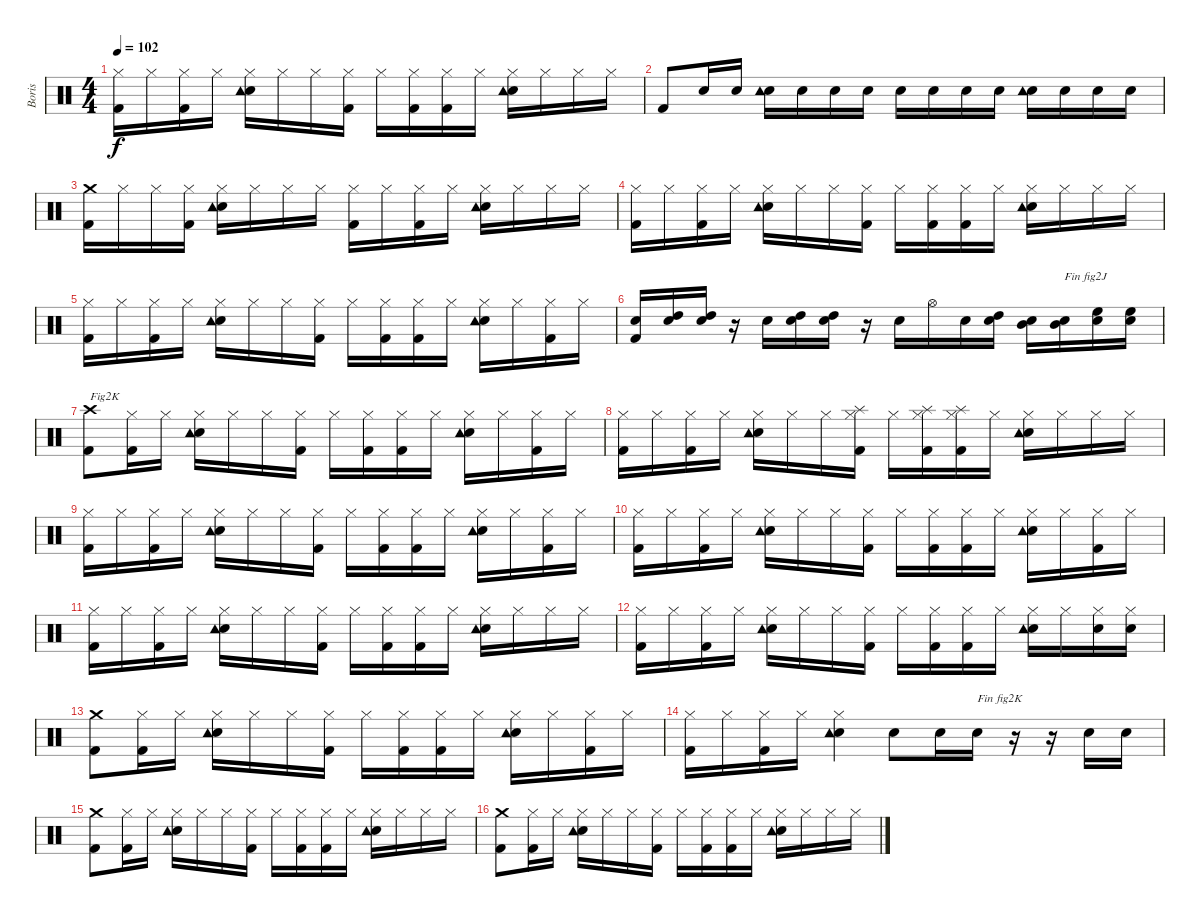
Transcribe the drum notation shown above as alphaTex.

\track ("Boris" "Boris") {instrument percussion}
\staff {score}
\articulation defaults
\ts (4 4)
\tempo 102
\clef neutral
\ks c
("Kick (hit) 2" "Hi-Hat (closed)").16{dy f} "Hi-Hat (closed)".16 ("Kick (hit) 2" "Hi-Hat (closed)").16 "Hi-Hat (closed)".16 ("Electric Snare (hit)" "Tambourine (hit)" "Hi-Hat (closed)").16 "Hi-Hat (closed)".16 "Hi-Hat (closed)".16 ("Kick (hit) 2" "Hi-Hat (closed)").16 "Hi-Hat (closed)".16 ("Kick (hit) 2" "Hi-Hat (closed)").16 ("Kick (hit) 2" "Hi-Hat (closed)").16 "Hi-Hat (closed)".16 ("Electric Snare (hit)" "Tambourine (hit)" "Hi-Hat (closed)").16 "Hi-Hat (closed)".16 "Hi-Hat (closed)".16 "Hi-Hat (closed)".16 |
"Kick (hit) 2".8 "Electric Snare (hit)".16 "Electric Snare (hit)".16 ("Electric Snare (hit)" "Tambourine (hit)").16 "Electric Snare (hit)".16 "Electric Snare (hit)".16 "Electric Snare (hit)".16 "Electric Snare (hit)".16 "Electric Snare (hit)".16 "Electric Snare (hit)".16 "Electric Snare (hit)".16 ("Electric Snare (hit)" "Tambourine (hit)").16 "Electric Snare (hit)".16 "Electric Snare (hit)".16 "Electric Snare (hit)".16 |
("Kick (hit) 2" "Crash medium (hit)").16 "Hi-Hat (closed)".16 "Hi-Hat (closed)".16 ("Kick (hit) 2" "Hi-Hat (closed)").16 ("Electric Snare (hit)" "Tambourine (hit)" "Hi-Hat (closed)").16 "Hi-Hat (closed)".16 "Hi-Hat (closed)".16 "Hi-Hat (closed)".16 ("Kick (hit) 2" "Hi-Hat (closed)").16 "Hi-Hat (closed)".16 ("Kick (hit) 2" "Hi-Hat (closed)").16 "Hi-Hat (closed)".16 ("Electric Snare (hit)" "Tambourine (hit)" "Hi-Hat (closed)").16 "Hi-Hat (closed)".16 "Hi-Hat (closed)".16 "Hi-Hat (closed)".16 |
("Kick (hit) 2" "Hi-Hat (closed)").16 "Hi-Hat (closed)".16 ("Kick (hit) 2" "Hi-Hat (closed)").16 "Hi-Hat (closed)".16 ("Electric Snare (hit)" "Tambourine (hit)" "Hi-Hat (closed)").16 "Hi-Hat (closed)".16 "Hi-Hat (closed)".16 ("Kick (hit) 2" "Hi-Hat (closed)").16 "Hi-Hat (closed)".16 ("Kick (hit) 2" "Hi-Hat (closed)").16 ("Kick (hit) 2" "Hi-Hat (closed)").16 "Hi-Hat (closed)".16 ("Electric Snare (hit)" "Tambourine (hit)" "Hi-Hat (closed)").16 "Hi-Hat (closed)".16 "Hi-Hat (closed)".16 "Hi-Hat (closed)".16 |
("Kick (hit) 2" "Hi-Hat (closed)").16 "Hi-Hat (closed)".16 ("Kick (hit) 2" "Hi-Hat (closed)").16 "Hi-Hat (closed)".16 ("Electric Snare (hit)" "Tambourine (hit)" "Hi-Hat (closed)").16 "Hi-Hat (closed)".16 "Hi-Hat (closed)".16 ("Kick (hit) 2" "Hi-Hat (closed)").16 "Hi-Hat (closed)".16 ("Kick (hit) 2" "Hi-Hat (closed)").16 ("Kick (hit) 2" "Hi-Hat (closed)").16 "Hi-Hat (closed)".16 ("Electric Snare (hit)" "Tambourine (hit)" "Hi-Hat (closed)").16 "Hi-Hat (closed)".16 ("Kick (hit) 2" "Hi-Hat (closed)").16 "Hi-Hat (closed)".16 |
("Kick (hit) 2" "Electric Snare (hit)").16 ("Electric Snare (hit)" "High Tom (hit)").16 ("Electric Snare (hit)" "High Tom (hit)").16 r.16 "Electric Snare (hit)".16 ("Electric Snare (hit)" "High Tom (hit)").16 ("Electric Snare (hit)" "High Tom (hit)").16 r.16 "Electric Snare (hit)".16 "Hi-Hat (open)".16 "Electric Snare (hit)".16 ("Electric Snare (hit)" "High Tom (hit)").16 ("Electric Snare (hit)" "Mid Tom (hit)").16 ("Electric Snare (hit)" "Mid Tom (hit)").16{txt "Fin fig2J"} ("Electric Snare (hit)" "High Floor Tom (hit)").16 ("Electric Snare (hit)" "High Floor Tom (hit)").16 |
("Kick (hit) 2" "Crash high (hit)").8{txt "Fig2K"} ("Kick (hit) 2" "Hi-Hat (closed)").16 "Hi-Hat (closed)".16 ("Electric Snare (hit)" "Tambourine (hit)" "Hi-Hat (closed)").16 "Hi-Hat (closed)".16 "Hi-Hat (closed)".16 ("Kick (hit) 2" "Hi-Hat (closed)").16 "Hi-Hat (closed)".16 ("Kick (hit) 2" "Hi-Hat (closed)").16 ("Kick (hit) 2" "Hi-Hat (closed)").16 "Hi-Hat (closed)".16 ("Electric Snare (hit)" "Tambourine (hit)" "Hi-Hat (closed)").16 "Hi-Hat (closed)".16 ("Kick (hit) 2" "Hi-Hat (closed)").16 "Hi-Hat (closed)".16 |
("Kick (hit) 2" "Hi-Hat (closed)").16 "Hi-Hat (closed)".16 ("Kick (hit) 2" "Hi-Hat (closed)").16 "Hi-Hat (closed)".16 ("Electric Snare (hit)" "Tambourine (hit)" "Hi-Hat (closed)").16 "Hi-Hat (closed)".16 "Hi-Hat (closed)".16 ("Kick (hit) 2" "Hi-Hat (closed)" "Splash (hit)").16 "Hi-Hat (closed)".16 ("Kick (hit) 2" "Hi-Hat (closed)" "Splash (hit)").16 ("Kick (hit) 2" "Hi-Hat (closed)" "Splash (hit)").16 "Hi-Hat (closed)".16 ("Electric Snare (hit)" "Tambourine (hit)" "Hi-Hat (closed)").16 "Hi-Hat (closed)".16 "Hi-Hat (closed)".16 "Hi-Hat (closed)".16 |
("Kick (hit) 2" "Hi-Hat (closed)").16 "Hi-Hat (closed)".16 ("Kick (hit) 2" "Hi-Hat (closed)").16 "Hi-Hat (closed)".16 ("Electric Snare (hit)" "Tambourine (hit)" "Hi-Hat (closed)").16 "Hi-Hat (closed)".16 "Hi-Hat (closed)".16 ("Kick (hit) 2" "Hi-Hat (closed)").16 "Hi-Hat (closed)".16 ("Kick (hit) 2" "Hi-Hat (closed)").16 ("Kick (hit) 2" "Hi-Hat (closed)").16 "Hi-Hat (closed)".16 ("Electric Snare (hit)" "Tambourine (hit)" "Hi-Hat (closed)").16 "Hi-Hat (closed)".16 ("Kick (hit) 2" "Hi-Hat (closed)").16 "Hi-Hat (closed)".16 |
("Kick (hit) 2" "Hi-Hat (closed)").16 "Hi-Hat (closed)".16 ("Kick (hit) 2" "Hi-Hat (closed)").16 "Hi-Hat (closed)".16 ("Electric Snare (hit)" "Tambourine (hit)" "Hi-Hat (closed)").16 "Hi-Hat (closed)".16 "Hi-Hat (closed)".16 ("Kick (hit) 2" "Hi-Hat (closed)").16 "Hi-Hat (closed)".16 ("Kick (hit) 2" "Hi-Hat (closed)").16 ("Kick (hit) 2" "Hi-Hat (closed)").16 "Hi-Hat (closed)".16 ("Electric Snare (hit)" "Tambourine (hit)" "Hi-Hat (closed)").16 "Hi-Hat (closed)".16 ("Kick (hit) 2" "Hi-Hat (closed)").16 "Hi-Hat (closed)".16 |
("Kick (hit) 2" "Hi-Hat (closed)").16 "Hi-Hat (closed)".16 ("Kick (hit) 2" "Hi-Hat (closed)").16 "Hi-Hat (closed)".16 ("Electric Snare (hit)" "Tambourine (hit)" "Hi-Hat (closed)").16 "Hi-Hat (closed)".16 "Hi-Hat (closed)".16 ("Kick (hit) 2" "Hi-Hat (closed)").16 "Hi-Hat (closed)".16 ("Kick (hit) 2" "Hi-Hat (closed)").16 ("Kick (hit) 2" "Hi-Hat (closed)").16 "Hi-Hat (closed)".16 ("Electric Snare (hit)" "Tambourine (hit)" "Hi-Hat (closed)").16 "Hi-Hat (closed)".16 "Hi-Hat (closed)".16 "Hi-Hat (closed)".16 |
("Kick (hit) 2" "Hi-Hat (closed)").16 "Hi-Hat (closed)".16 ("Kick (hit) 2" "Hi-Hat (closed)").16 "Hi-Hat (closed)".16 ("Electric Snare (hit)" "Tambourine (hit)" "Hi-Hat (closed)").16 "Hi-Hat (closed)".16 "Hi-Hat (closed)".16 ("Kick (hit) 2" "Hi-Hat (closed)").16 "Hi-Hat (closed)".16 ("Kick (hit) 2" "Hi-Hat (closed)").16 ("Kick (hit) 2" "Hi-Hat (closed)").16 "Hi-Hat (closed)".16 ("Electric Snare (hit)" "Tambourine (hit)" "Hi-Hat (closed)").16 "Hi-Hat (closed)".16 ("Electric Snare (hit)" "Hi-Hat (closed)").16 ("Electric Snare (hit)" "Hi-Hat (closed)").16 |
("Kick (hit) 2" "Crash medium (hit)").8 ("Kick (hit) 2" "Hi-Hat (closed)").16 "Hi-Hat (closed)".16 ("Electric Snare (hit)" "Tambourine (hit)" "Hi-Hat (closed)").16 "Hi-Hat (closed)".16 "Hi-Hat (closed)".16 ("Kick (hit) 2" "Hi-Hat (closed)").16 "Hi-Hat (closed)".16 ("Kick (hit) 2" "Hi-Hat (closed)").16 ("Kick (hit) 2" "Hi-Hat (closed)").16 "Hi-Hat (closed)".16 ("Electric Snare (hit)" "Tambourine (hit)" "Hi-Hat (closed)").16 "Hi-Hat (closed)".16 ("Kick (hit) 2" "Hi-Hat (closed)").16 "Hi-Hat (closed)".16 |
("Kick (hit) 2" "Hi-Hat (closed)").16 "Hi-Hat (closed)".16 ("Kick (hit) 2" "Hi-Hat (closed)").16 "Hi-Hat (closed)".16 ("Electric Snare (hit)" "Tambourine (hit)" "Hi-Hat (closed)").4 "Electric Snare (hit)".8 "Electric Snare (hit)".16 "Electric Snare (hit)".16{txt "Fin fig2K"} r.16 r.16 "Electric Snare (hit)".16 "Electric Snare (hit)".16 |
("Kick (hit) 2" "Crash medium (hit)").8{volume 11} ("Kick (hit) 2" "Hi-Hat (closed)").16 "Hi-Hat (closed)".16 ("Electric Snare (hit)" "Tambourine (hit)" "Hi-Hat (closed)").16 "Hi-Hat (closed)".16 "Hi-Hat (closed)".16 ("Kick (hit) 2" "Hi-Hat (closed)").16 "Hi-Hat (closed)".16 ("Kick (hit) 2" "Hi-Hat (closed)").16 ("Kick (hit) 2" "Hi-Hat (closed)").16 "Hi-Hat (closed)".16 ("Electric Snare (hit)" "Tambourine (hit)" "Hi-Hat (closed)").16 "Hi-Hat (closed)".16 "Hi-Hat (closed)".16 "Hi-Hat (closed)".16 |
("Kick (hit) 2" "Crash medium (hit)").8 ("Kick (hit) 2" "Hi-Hat (closed)").16 "Hi-Hat (closed)".16 ("Electric Snare (hit)" "Tambourine (hit)" "Hi-Hat (closed)").16 "Hi-Hat (closed)".16 "Hi-Hat (closed)".16 ("Kick (hit) 2" "Hi-Hat (closed)").16 "Hi-Hat (closed)".16 ("Kick (hit) 2" "Hi-Hat (closed)").16 ("Kick (hit) 2" "Hi-Hat (closed)").16 "Hi-Hat (closed)".16 ("Electric Snare (hit)" "Tambourine (hit)" "Hi-Hat (closed)").16 "Hi-Hat (closed)".16 "Hi-Hat (closed)".16 "Hi-Hat (closed)".16
